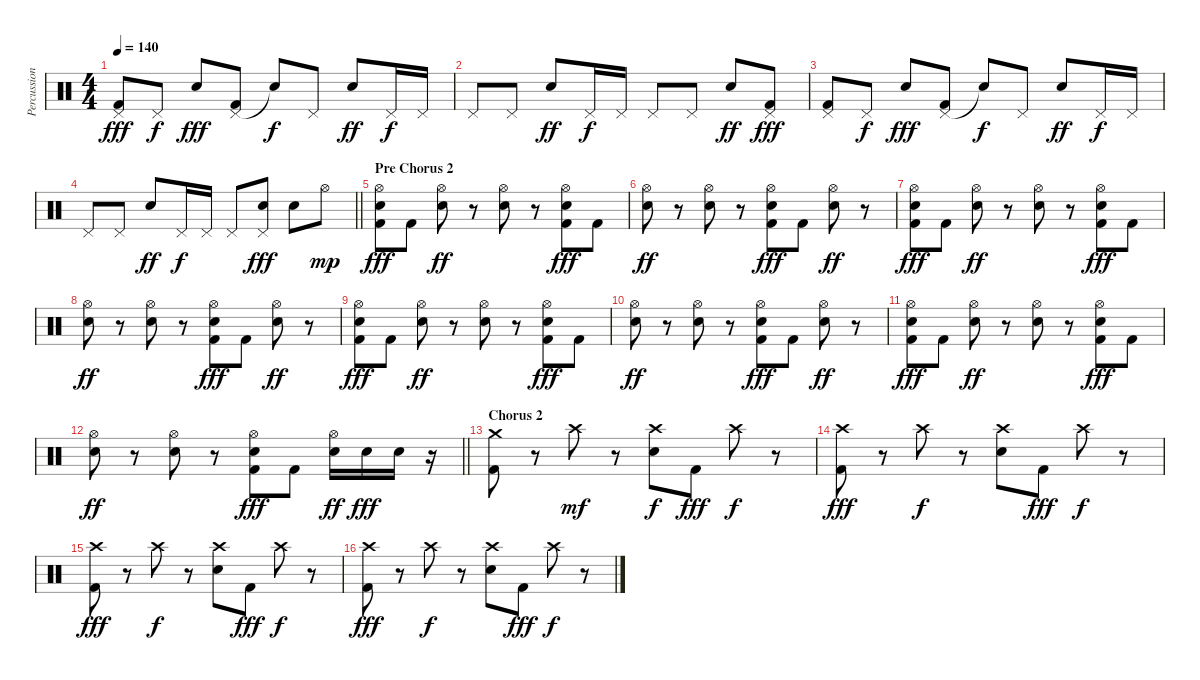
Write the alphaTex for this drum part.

\track ("Percussion" "Percussion") {instrument percussion}
\staff {score}
\articulation defaults
\ts (4 4)
\tempo 140
\clef neutral
\ks c
("Pedal Hi-Hat (hit)" "Kick (hit) 2").8{dy fff} "Pedal Hi-Hat (hit)".8{dy f} "Electric Snare (hit)".8{dy fff} ("Pedal Hi-Hat (hit)" "Kick (hit) 2").8 "Snare (hit)"{t}.8{dy f} "Pedal Hi-Hat (hit)".8 "Electric Snare (hit)".8{dy ff} "Pedal Hi-Hat (hit)".16{dy f} "Pedal Hi-Hat (hit)".16 |
"Pedal Hi-Hat (hit)".8 "Pedal Hi-Hat (hit)".8 "Electric Snare (hit)".8{dy ff} "Pedal Hi-Hat (hit)".16{dy f} "Pedal Hi-Hat (hit)".16 "Pedal Hi-Hat (hit)".8 "Pedal Hi-Hat (hit)".8 "Electric Snare (hit)".8{dy ff} ("Pedal Hi-Hat (hit)" "Kick (hit) 2").8{dy fff} |
("Pedal Hi-Hat (hit)" "Kick (hit) 2").8 "Pedal Hi-Hat (hit)".8{dy f} "Electric Snare (hit)".8{dy fff} ("Pedal Hi-Hat (hit)" "Kick (hit) 2").8 "Snare (hit)"{t}.8{dy f} "Pedal Hi-Hat (hit)".8 "Electric Snare (hit)".8{dy ff} "Pedal Hi-Hat (hit)".16{dy f} "Pedal Hi-Hat (hit)".16 |
\barLineRight lightlight "Pedal Hi-Hat (hit)".8 "Pedal Hi-Hat (hit)".8 "Electric Snare (hit)".8{dy ff} "Pedal Hi-Hat (hit)".16{dy f} "Pedal Hi-Hat (hit)".16 "Pedal Hi-Hat (hit)".8
("Pedal Hi-Hat (hit)" "Electric Snare (hit)").8{dy fff} "Electric Snare (hit)".8 "Hi-Hat (open)".8{dy mp} |
\section ("" "Pre Chorus 2")
("Hi-Hat (open)" "Electric Snare (hit)" "Kick (hit) 2").8{dy fff} "Kick (hit) 2".8 ("Hi-Hat (open)" "Electric Snare (hit)").8{dy ff} r.8 ("Hi-Hat (open)" "Electric Snare (hit)").8 r.8 ("Hi-Hat (open)" "Electric Snare (hit)" "Kick (hit) 2").8{dy fff} "Kick (hit) 2".8 |
("Hi-Hat (open)" "Electric Snare (hit)").8{dy ff} r.8 ("Hi-Hat (open)" "Electric Snare (hit)").8 r.8 ("Hi-Hat (open)" "Electric Snare (hit)" "Kick (hit) 2").8{dy fff} "Kick (hit) 2".8 ("Hi-Hat (open)" "Electric Snare (hit)").8{dy ff} r.8 |
("Hi-Hat (open)" "Electric Snare (hit)" "Kick (hit) 2").8{dy fff} "Kick (hit) 2".8 ("Hi-Hat (open)" "Electric Snare (hit)").8{dy ff} r.8 ("Hi-Hat (open)" "Electric Snare (hit)").8 r.8 ("Hi-Hat (open)" "Electric Snare (hit)" "Kick (hit) 2").8{dy fff} "Kick (hit) 2".8 |
("Hi-Hat (open)" "Electric Snare (hit)").8{dy ff} r.8 ("Hi-Hat (open)" "Electric Snare (hit)").8 r.8 ("Hi-Hat (open)" "Electric Snare (hit)" "Kick (hit) 2").8{dy fff} "Kick (hit) 2".8 ("Hi-Hat (open)" "Electric Snare (hit)").8{dy ff} r.8 |
("Hi-Hat (open)" "Electric Snare (hit)" "Kick (hit) 2").8{dy fff} "Kick (hit) 2".8 ("Hi-Hat (open)" "Electric Snare (hit)").8{dy ff} r.8 ("Hi-Hat (open)" "Electric Snare (hit)").8 r.8 ("Hi-Hat (open)" "Electric Snare (hit)" "Kick (hit) 2").8{dy fff} "Kick (hit) 2".8 |
("Hi-Hat (open)" "Electric Snare (hit)").8{dy ff} r.8 ("Hi-Hat (open)" "Electric Snare (hit)").8 r.8 ("Hi-Hat (open)" "Electric Snare (hit)" "Kick (hit) 2").8{dy fff} "Kick (hit) 2".8 ("Hi-Hat (open)" "Electric Snare (hit)").8{dy ff} r.8 |
("Hi-Hat (open)" "Electric Snare (hit)" "Kick (hit) 2").8{dy fff} "Kick (hit) 2".8 ("Hi-Hat (open)" "Electric Snare (hit)").8{dy ff} r.8 ("Hi-Hat (open)" "Electric Snare (hit)").8 r.8 ("Hi-Hat (open)" "Electric Snare (hit)" "Kick (hit) 2").8{dy fff} "Kick (hit) 2".8 |
\barLineRight lightlight
("Hi-Hat (open)" "Electric Snare (hit)").8{dy ff} r.8 ("Hi-Hat (open)" "Electric Snare (hit)").8 r.8 ("Hi-Hat (open)" "Electric Snare (hit)" "Kick (hit) 2").8{dy fff} "Kick (hit) 2".8 ("Hi-Hat (open)" "Electric Snare (hit)").16{dy ff} "Electric Snare (hit)".16{dy fff} "Electric Snare (hit)".16 r.16 |
\section ("" "Chorus 2")
("Crash medium (hit)" "Kick (hit) 2").8 r.8 "Crash high (hit)".8{dy mf} r.8 ("Crash high (hit)" "Electric Snare (hit)").8{dy f} "Kick (hit) 2".8{dy fff} "Crash high (hit)".8{dy f} r.8 |
("Crash high (hit)" "Kick (hit) 2").8{dy fff} r.8 "Crash high (hit)".8{dy f} r.8 ("Crash high (hit)" "Electric Snare (hit)").8 "Kick (hit) 2".8{dy fff} "Crash high (hit)".8{dy f} r.8 |
("Crash high (hit)" "Kick (hit) 2").8{dy fff} r.8 "Crash high (hit)".8{dy f} r.8 ("Crash high (hit)" "Electric Snare (hit)").8 "Kick (hit) 2".8{dy fff} "Crash high (hit)".8{dy f} r.8 |
("Crash high (hit)" "Kick (hit) 2").8{dy fff} r.8 "Crash high (hit)".8{dy f} r.8 ("Crash high (hit)" "Electric Snare (hit)").8 "Kick (hit) 2".8{dy fff} "Crash high (hit)".8{dy f} r.8
